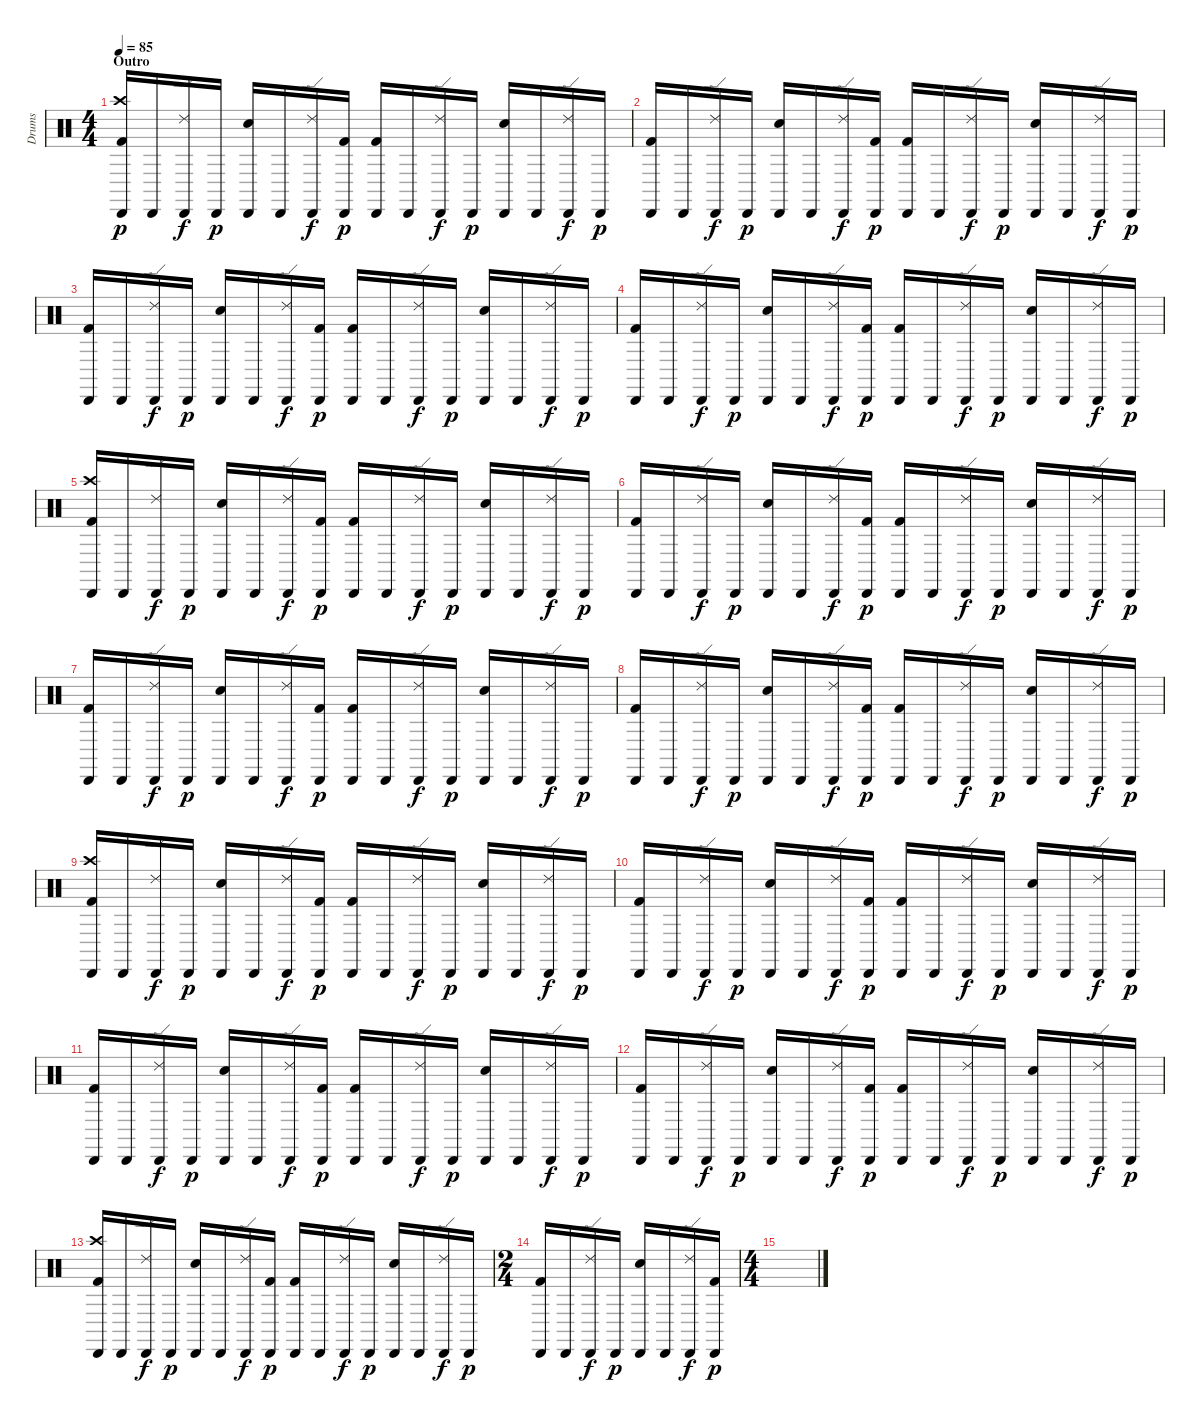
\track ("Drums" "Drums") {instrument percussion}
\staff {score}
\articulation defaults
\ts (4 4)
\section ("" "Outro")
\tempo 85
\clef neutral
\ks c
("Cabasa (hit)" "Crash high (hit)" "Kick (hit) 2").16{dy p} "Cabasa (hit)".16 ("Cabasa (hit)" "Ride (edge) 2").16{dy f} "Cabasa (hit)".16{dy p} ("Cabasa (hit)" "Electric Snare (hit)").16 "Cabasa (hit)".16 ("Cabasa (hit)" "Ride (edge) 2").16{dy f} ("Cabasa (hit)" "Kick (hit) 2").16{dy p} ("Cabasa (hit)" "Kick (hit) 2").16 "Cabasa (hit)".16 ("Cabasa (hit)" "Ride (edge) 2").16{dy f} "Cabasa (hit)".16{dy p} ("Cabasa (hit)" "Electric Snare (hit)").16 "Cabasa (hit)".16 ("Cabasa (hit)" "Ride (edge) 2").16{dy f} "Cabasa (hit)".16{dy p} |
("Cabasa (hit)" "Kick (hit) 2").16 "Cabasa (hit)".16 ("Cabasa (hit)" "Ride (edge) 2").16{dy f} "Cabasa (hit)".16{dy p} ("Cabasa (hit)" "Electric Snare (hit)").16 "Cabasa (hit)".16 ("Cabasa (hit)" "Ride (edge) 2").16{dy f} ("Cabasa (hit)" "Kick (hit) 2").16{dy p} ("Cabasa (hit)" "Kick (hit) 2").16 "Cabasa (hit)".16 ("Cabasa (hit)" "Ride (edge) 2").16{dy f} "Cabasa (hit)".16{dy p} ("Cabasa (hit)" "Electric Snare (hit)").16 "Cabasa (hit)".16 ("Cabasa (hit)" "Ride (edge) 2").16{dy f} "Cabasa (hit)".16{dy p} |
("Cabasa (hit)" "Kick (hit) 2").16 "Cabasa (hit)".16 ("Cabasa (hit)" "Ride (edge) 2").16{dy f} "Cabasa (hit)".16{dy p} ("Cabasa (hit)" "Electric Snare (hit)").16 "Cabasa (hit)".16 ("Cabasa (hit)" "Ride (edge) 2").16{dy f} ("Cabasa (hit)" "Kick (hit) 2").16{dy p} ("Cabasa (hit)" "Kick (hit) 2").16 "Cabasa (hit)".16 ("Cabasa (hit)" "Ride (edge) 2").16{dy f} "Cabasa (hit)".16{dy p} ("Cabasa (hit)" "Electric Snare (hit)").16 "Cabasa (hit)".16 ("Cabasa (hit)" "Ride (edge) 2").16{dy f} "Cabasa (hit)".16{dy p} |
("Cabasa (hit)" "Kick (hit) 2").16 "Cabasa (hit)".16 ("Cabasa (hit)" "Ride (edge) 2").16{dy f} "Cabasa (hit)".16{dy p} ("Cabasa (hit)" "Electric Snare (hit)").16 "Cabasa (hit)".16 ("Cabasa (hit)" "Ride (edge) 2").16{dy f} ("Cabasa (hit)" "Kick (hit) 2").16{dy p} ("Cabasa (hit)" "Kick (hit) 2").16 "Cabasa (hit)".16 ("Cabasa (hit)" "Ride (edge) 2").16{dy f} "Cabasa (hit)".16{dy p} ("Cabasa (hit)" "Electric Snare (hit)").16 "Cabasa (hit)".16 ("Cabasa (hit)" "Ride (edge) 2").16{dy f} "Cabasa (hit)".16{dy p} |
("Cabasa (hit)" "Crash high (hit)" "Kick (hit) 2").16 "Cabasa (hit)".16 ("Cabasa (hit)" "Ride (edge) 2").16{dy f} "Cabasa (hit)".16{dy p} ("Cabasa (hit)" "Electric Snare (hit)").16 "Cabasa (hit)".16 ("Cabasa (hit)" "Ride (edge) 2").16{dy f} ("Cabasa (hit)" "Kick (hit) 2").16{dy p} ("Cabasa (hit)" "Kick (hit) 2").16 "Cabasa (hit)".16 ("Cabasa (hit)" "Ride (edge) 2").16{dy f} "Cabasa (hit)".16{dy p} ("Cabasa (hit)" "Electric Snare (hit)").16 "Cabasa (hit)".16 ("Cabasa (hit)" "Ride (edge) 2").16{dy f} "Cabasa (hit)".16{dy p} |
("Cabasa (hit)" "Kick (hit) 2").16 "Cabasa (hit)".16 ("Cabasa (hit)" "Ride (edge) 2").16{dy f} "Cabasa (hit)".16{dy p} ("Cabasa (hit)" "Electric Snare (hit)").16 "Cabasa (hit)".16 ("Cabasa (hit)" "Ride (edge) 2").16{dy f} ("Cabasa (hit)" "Kick (hit) 2").16{dy p} ("Cabasa (hit)" "Kick (hit) 2").16 "Cabasa (hit)".16 ("Cabasa (hit)" "Ride (edge) 2").16{dy f} "Cabasa (hit)".16{dy p} ("Cabasa (hit)" "Electric Snare (hit)").16 "Cabasa (hit)".16 ("Cabasa (hit)" "Ride (edge) 2").16{dy f} "Cabasa (hit)".16{dy p} |
("Cabasa (hit)" "Kick (hit) 2").16 "Cabasa (hit)".16 ("Cabasa (hit)" "Ride (edge) 2").16{dy f} "Cabasa (hit)".16{dy p} ("Cabasa (hit)" "Electric Snare (hit)").16 "Cabasa (hit)".16 ("Cabasa (hit)" "Ride (edge) 2").16{dy f} ("Cabasa (hit)" "Kick (hit) 2").16{dy p} ("Cabasa (hit)" "Kick (hit) 2").16 "Cabasa (hit)".16 ("Cabasa (hit)" "Ride (edge) 2").16{dy f} "Cabasa (hit)".16{dy p} ("Cabasa (hit)" "Electric Snare (hit)").16 "Cabasa (hit)".16 ("Cabasa (hit)" "Ride (edge) 2").16{dy f} "Cabasa (hit)".16{dy p} |
("Cabasa (hit)" "Kick (hit) 2").16 "Cabasa (hit)".16 ("Cabasa (hit)" "Ride (edge) 2").16{dy f} "Cabasa (hit)".16{dy p} ("Cabasa (hit)" "Electric Snare (hit)").16 "Cabasa (hit)".16 ("Cabasa (hit)" "Ride (edge) 2").16{dy f} ("Cabasa (hit)" "Kick (hit) 2").16{dy p} ("Cabasa (hit)" "Kick (hit) 2").16 "Cabasa (hit)".16 ("Cabasa (hit)" "Ride (edge) 2").16{dy f} "Cabasa (hit)".16{dy p} ("Cabasa (hit)" "Electric Snare (hit)").16 "Cabasa (hit)".16 ("Cabasa (hit)" "Ride (edge) 2").16{dy f} "Cabasa (hit)".16{dy p} |
("Cabasa (hit)" "Crash high (hit)" "Kick (hit) 2").16 "Cabasa (hit)".16 ("Cabasa (hit)" "Ride (edge) 2").16{dy f} "Cabasa (hit)".16{dy p} ("Cabasa (hit)" "Electric Snare (hit)").16 "Cabasa (hit)".16 ("Cabasa (hit)" "Ride (edge) 2").16{dy f} ("Cabasa (hit)" "Kick (hit) 2").16{dy p} ("Cabasa (hit)" "Kick (hit) 2").16 "Cabasa (hit)".16 ("Cabasa (hit)" "Ride (edge) 2").16{dy f} "Cabasa (hit)".16{dy p} ("Cabasa (hit)" "Electric Snare (hit)").16 "Cabasa (hit)".16 ("Cabasa (hit)" "Ride (edge) 2").16{dy f} "Cabasa (hit)".16{dy p} |
("Cabasa (hit)" "Kick (hit) 2").16{volume 6} "Cabasa (hit)".16 ("Cabasa (hit)" "Ride (edge) 2").16{dy f} "Cabasa (hit)".16{dy p} ("Cabasa (hit)" "Electric Snare (hit)").16 "Cabasa (hit)".16 ("Cabasa (hit)" "Ride (edge) 2").16{dy f} ("Cabasa (hit)" "Kick (hit) 2").16{dy p} ("Cabasa (hit)" "Kick (hit) 2").16 "Cabasa (hit)".16 ("Cabasa (hit)" "Ride (edge) 2").16{dy f} "Cabasa (hit)".16{dy p} ("Cabasa (hit)" "Electric Snare (hit)").16 "Cabasa (hit)".16 ("Cabasa (hit)" "Ride (edge) 2").16{dy f} "Cabasa (hit)".16{dy p} |
("Cabasa (hit)" "Kick (hit) 2").16 "Cabasa (hit)".16 ("Cabasa (hit)" "Ride (edge) 2").16{dy f} "Cabasa (hit)".16{dy p} ("Cabasa (hit)" "Electric Snare (hit)").16 "Cabasa (hit)".16 ("Cabasa (hit)" "Ride (edge) 2").16{dy f} ("Cabasa (hit)" "Kick (hit) 2").16{dy p} ("Cabasa (hit)" "Kick (hit) 2").16 "Cabasa (hit)".16 ("Cabasa (hit)" "Ride (edge) 2").16{dy f} "Cabasa (hit)".16{dy p} ("Cabasa (hit)" "Electric Snare (hit)").16 "Cabasa (hit)".16 ("Cabasa (hit)" "Ride (edge) 2").16{dy f} "Cabasa (hit)".16{dy p} |
("Cabasa (hit)" "Kick (hit) 2").16{volume 2} "Cabasa (hit)".16 ("Cabasa (hit)" "Ride (edge) 2").16{dy f} "Cabasa (hit)".16{dy p} ("Cabasa (hit)" "Electric Snare (hit)").16 "Cabasa (hit)".16 ("Cabasa (hit)" "Ride (edge) 2").16{dy f} ("Cabasa (hit)" "Kick (hit) 2").16{dy p} ("Cabasa (hit)" "Kick (hit) 2").16 "Cabasa (hit)".16 ("Cabasa (hit)" "Ride (edge) 2").16{dy f} "Cabasa (hit)".16{dy p} ("Cabasa (hit)" "Electric Snare (hit)").16 "Cabasa (hit)".16 ("Cabasa (hit)" "Ride (edge) 2").16{dy f} "Cabasa (hit)".16{dy p} |
("Cabasa (hit)" "Crash high (hit)" "Kick (hit) 2").16 "Cabasa (hit)".16 ("Cabasa (hit)" "Ride (edge) 2").16{dy f} "Cabasa (hit)".16{dy p} ("Cabasa (hit)" "Electric Snare (hit)").16 "Cabasa (hit)".16 ("Cabasa (hit)" "Ride (edge) 2").16{dy f} ("Cabasa (hit)" "Kick (hit) 2").16{dy p} ("Cabasa (hit)" "Kick (hit) 2").16 "Cabasa (hit)".16 ("Cabasa (hit)" "Ride (edge) 2").16{dy f} "Cabasa (hit)".16{dy p} ("Cabasa (hit)" "Electric Snare (hit)").16 "Cabasa (hit)".16 ("Cabasa (hit)" "Ride (edge) 2").16{dy f} "Cabasa (hit)".16{dy p} |
\ts (2 4)
("Cabasa (hit)" "Kick (hit) 2").16{volume 0} "Cabasa (hit)".16 ("Cabasa (hit)" "Ride (edge) 2").16{dy f} "Cabasa (hit)".16{dy p} ("Cabasa (hit)" "Electric Snare (hit)").16 "Cabasa (hit)".16 ("Cabasa (hit)" "Ride (edge) 2").16{dy f} ("Cabasa (hit)" "Kick (hit) 2").16{dy p} |
\ts (4 4)
